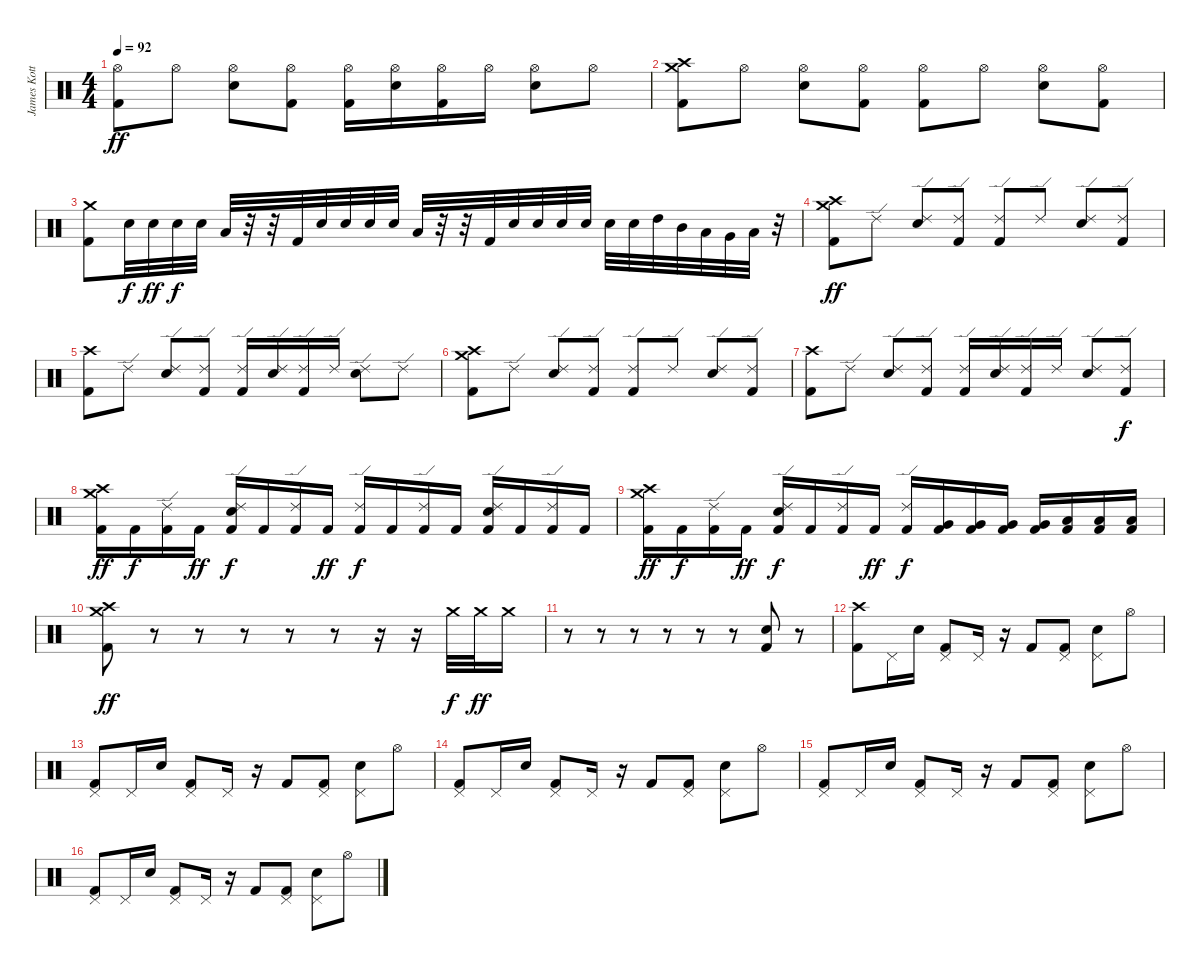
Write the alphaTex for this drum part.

\track ("James Kottak" "James Kott") {instrument percussion}
\staff {score}
\articulation defaults
\ts (4 4)
\tempo 92
\clef neutral
\ks c
("Hi-Hat (open)" "Kick (hit) 2").8{dy ff} "Hi-Hat (open)".8 ("Hi-Hat (open)" "Electric Snare (hit)").8 ("Hi-Hat (open)" "Kick (hit) 2").8 ("Hi-Hat (open)" "Kick (hit) 2").16 ("Hi-Hat (open)" "Electric Snare (hit)").16 ("Hi-Hat (open)" "Kick (hit) 2").16 "Hi-Hat (open)".16 ("Hi-Hat (open)" "Electric Snare (hit)").8 "Hi-Hat (open)".8 |
("Crash high (hit)" "Crash medium (hit)" "Kick (hit) 2").8 "Hi-Hat (open)".8 ("Hi-Hat (open)" "Electric Snare (hit)").8 ("Hi-Hat (open)" "Kick (hit) 2").8 ("Hi-Hat (open)" "Kick (hit) 2").8 "Hi-Hat (open)".8 ("Hi-Hat (open)" "Electric Snare (hit)").8 ("Hi-Hat (open)" "Kick (hit) 2").8 |
("Crash medium (hit)" "Kick (hit) 2").8 "Electric Snare (hit)".32{dy f} "Electric Snare (hit)".32{dy ff} "Electric Snare (hit)".32{dy f} "Electric Snare (hit)".32 "Low Tom (hit)".32 r.32 r.32 "Kick (hit) 2".32 "Electric Snare (hit)".32 "Electric Snare (hit)".32 "Electric Snare (hit)".32 "Electric Snare (hit)".32 "Low Tom (hit)".32 r.32 r.32 "Kick (hit) 2".32 "Electric Snare (hit)".32 "Electric Snare (hit)".32 "Electric Snare (hit)".32 "Electric Snare (hit)".32 "Electric Snare (hit)".32 "Electric Snare (hit)".32 "High Tom (hit)".32 "Mid Tom (hit)".32 "Low Tom (hit)".32 "Very Low Tom (hit)".32 "Low Floor Tom (hit)".32 r.32 |
("Crash high (hit)" "Crash medium (hit)" "Kick (hit) 2").8{dy ff} "Ride (edge) 2".8 ("Ride (edge) 2" "Electric Snare (hit)").8 ("Ride (edge) 2" "Kick (hit) 2").8 ("Ride (edge) 2" "Kick (hit) 2").8 "Ride (edge) 2".8 ("Ride (edge) 2" "Electric Snare (hit)").8 ("Ride (edge) 2" "Kick (hit) 2").8 |
("Crash high (hit)" "Kick (hit) 2").8 "Ride (edge) 2".8 ("Ride (edge) 2" "Electric Snare (hit)").8 ("Ride (edge) 2" "Kick (hit) 2").8 ("Ride (edge) 2" "Kick (hit) 2").16 ("Ride (edge) 2" "Electric Snare (hit)").16 ("Ride (edge) 2" "Kick (hit) 2").16 "Ride (edge) 2".16 ("Ride (edge) 2" "Electric Snare (hit)").8 "Ride (edge) 2".8 |
("Crash high (hit)" "Crash medium (hit)" "Kick (hit) 2").8 "Ride (edge) 2".8 ("Ride (edge) 2" "Electric Snare (hit)").8 ("Ride (edge) 2" "Kick (hit) 2").8 ("Ride (edge) 2" "Kick (hit) 2").8 "Ride (edge) 2".8 ("Ride (edge) 2" "Electric Snare (hit)").8 ("Ride (edge) 2" "Kick (hit) 2").8 |
("Crash high (hit)" "Kick (hit) 2").8 "Ride (edge) 2".8 ("Ride (edge) 2" "Electric Snare (hit)").8 ("Ride (edge) 2" "Kick (hit) 2").8 ("Ride (edge) 2" "Kick (hit) 2").16 ("Ride (edge) 2" "Electric Snare (hit)").16 ("Ride (edge) 2" "Kick (hit) 2").16 "Ride (edge) 2".16 ("Ride (edge) 2" "Electric Snare (hit)").8 ("Ride (edge) 2" "Kick (hit) 2").8{dy f} |
("Crash high (hit)" "Crash medium (hit)" "Kick (hit) 2").16{dy ff} "Kick (hit) 2".16{dy f} ("Ride (edge) 2" "Kick (hit) 2").16 "Kick (hit) 2".16{dy ff} ("Ride (edge) 2" "Electric Snare (hit)" "Kick (hit) 2").16{dy f} "Kick (hit) 2".16 ("Ride (edge) 2" "Kick (hit) 2").16 "Kick (hit) 2".16{dy ff} ("Ride (edge) 2" "Kick (hit) 2").16{dy f} "Kick (hit) 2".16 ("Ride (edge) 2" "Kick (hit) 2").16 "Kick (hit) 2".16 ("Ride (edge) 2" "Electric Snare (hit)" "Kick (hit) 2").16 "Kick (hit) 2".16 ("Ride (edge) 2" "Kick (hit) 2").16 "Kick (hit) 2".16 |
("Crash high (hit)" "Crash medium (hit)" "Kick (hit) 2").16{dy ff} "Kick (hit) 2".16{dy f} ("Ride (edge) 2" "Kick (hit) 2").16 "Kick (hit) 2".16{dy ff} ("Ride (edge) 2" "Electric Snare (hit)" "Kick (hit) 2").16{dy f} "Kick (hit) 2".16 ("Ride (edge) 2" "Kick (hit) 2").16 "Kick (hit) 2".16{dy ff} ("Ride (edge) 2" "Kick (hit) 2").16{dy f} ("Very Low Tom (hit)" "Kick (hit) 2").16 ("Very Low Tom (hit)" "Kick (hit) 2").16 ("Very Low Tom (hit)" "Kick (hit) 2").16 ("Very Low Tom (hit)" "Kick (hit) 2").16 ("Low Floor Tom (hit)" "Kick (hit) 2").16 ("Low Floor Tom (hit)" "Kick (hit) 2").16 ("Low Floor Tom (hit)" "Kick (hit) 2").16 |
("Crash high (hit)" "Crash medium (hit)" "Kick (hit) 2").8{dy ff} r.8 r.8 r.8 r.8 r.8 r.16 r.16 "Crash medium (hit)".32{dy f} "Crash medium (hit)".32{dy ff} "Crash medium (hit)".16 |
r.8 r.8 r.8 r.8 r.8 r.8 ("Electric Snare (hit)" "Kick (hit) 2").8 r.8 |
("Crash high (hit)" "Kick (hit) 2").8 "Pedal Hi-Hat (hit)".16 "Electric Snare (hit)".16 ("Pedal Hi-Hat (hit)" "Kick (hit) 2").8 "Pedal Hi-Hat (hit)".16 r.16 "Kick (hit) 2".8 ("Pedal Hi-Hat (hit)" "Kick (hit) 2").8 ("Pedal Hi-Hat (hit)" "Electric Snare (hit)").8 "Hi-Hat (open)".8 |
("Pedal Hi-Hat (hit)" "Kick (hit) 2").8 "Pedal Hi-Hat (hit)".16 "Electric Snare (hit)".16 ("Pedal Hi-Hat (hit)" "Kick (hit) 2").8 "Pedal Hi-Hat (hit)".16 r.16 "Kick (hit) 2".8 ("Pedal Hi-Hat (hit)" "Kick (hit) 2").8 ("Pedal Hi-Hat (hit)" "Electric Snare (hit)").8 "Hi-Hat (open)".8 |
("Pedal Hi-Hat (hit)" "Kick (hit) 2").8 "Pedal Hi-Hat (hit)".16 "Electric Snare (hit)".16 ("Pedal Hi-Hat (hit)" "Kick (hit) 2").8 "Pedal Hi-Hat (hit)".16 r.16 "Kick (hit) 2".8 ("Pedal Hi-Hat (hit)" "Kick (hit) 2").8 ("Pedal Hi-Hat (hit)" "Electric Snare (hit)").8 "Hi-Hat (open)".8 |
("Pedal Hi-Hat (hit)" "Kick (hit) 2").8 "Pedal Hi-Hat (hit)".16 "Electric Snare (hit)".16 ("Pedal Hi-Hat (hit)" "Kick (hit) 2").8 "Pedal Hi-Hat (hit)".16 r.16 "Kick (hit) 2".8 ("Pedal Hi-Hat (hit)" "Kick (hit) 2").8 ("Pedal Hi-Hat (hit)" "Electric Snare (hit)").8 "Hi-Hat (open)".8 |
("Pedal Hi-Hat (hit)" "Kick (hit) 2").8 "Pedal Hi-Hat (hit)".16 "Electric Snare (hit)".16 ("Pedal Hi-Hat (hit)" "Kick (hit) 2").8 "Pedal Hi-Hat (hit)".16 r.16 "Kick (hit) 2".8 ("Pedal Hi-Hat (hit)" "Kick (hit) 2").8 ("Pedal Hi-Hat (hit)" "Electric Snare (hit)").8 "Hi-Hat (open)".8
